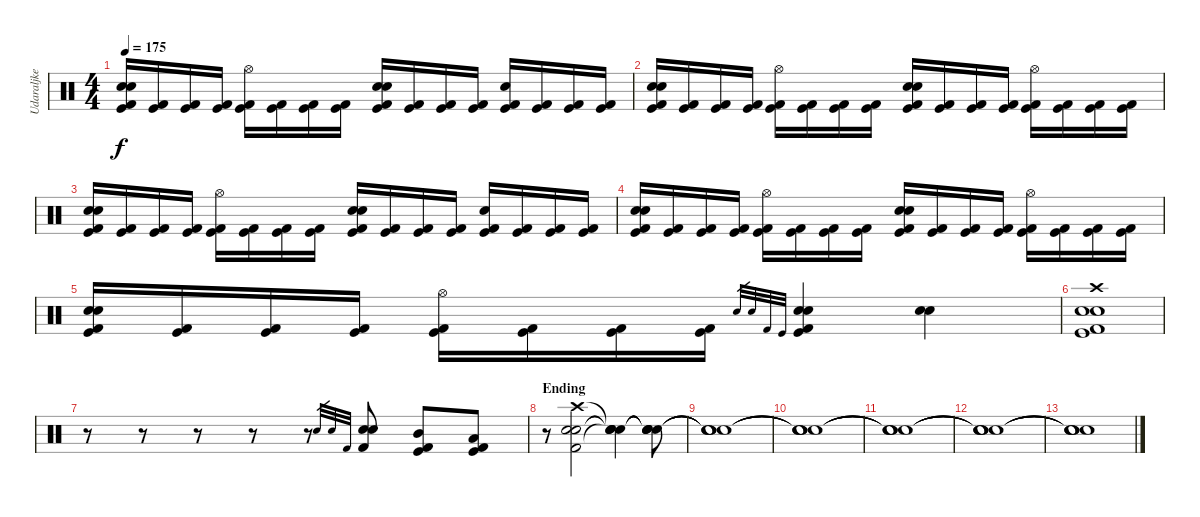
\track ("Udaraljke" "Udaraljke") {instrument percussion}
\staff {score}
\articulation defaults
\ts (4 4)
\tempo 175
\clef neutral
\ks c
("Electric Snare (hit)" "Snare (hit) 2" "Kick (hit) 2" "Kick (hit)").16{dy f} ("Kick (hit) 2" "Kick (hit)").16 ("Kick (hit) 2" "Kick (hit)").16 ("Kick (hit) 2" "Kick (hit)").16 ("Hi-Hat (open)" "Kick (hit) 2" "Kick (hit)").16 ("Kick (hit) 2" "Kick (hit)").16 ("Kick (hit) 2" "Kick (hit)").16 ("Kick (hit) 2" "Kick (hit)").16 ("Electric Snare (hit)" "Snare (hit) 2" "Kick (hit) 2" "Kick (hit)").16 ("Kick (hit) 2" "Kick (hit)").16 ("Kick (hit) 2" "Kick (hit)").16 ("Kick (hit) 2" "Kick (hit)").16 ("Electric Snare (hit)" "Kick (hit) 2" "Kick (hit)").16 ("Kick (hit) 2" "Kick (hit)").16 ("Kick (hit) 2" "Kick (hit)").16 ("Kick (hit) 2" "Kick (hit)").16 |
("Electric Snare (hit)" "Snare (hit) 2" "Kick (hit) 2" "Kick (hit)").16 ("Kick (hit) 2" "Kick (hit)").16 ("Kick (hit) 2" "Kick (hit)").16 ("Kick (hit) 2" "Kick (hit)").16 ("Hi-Hat (open)" "Kick (hit) 2" "Kick (hit)").16 ("Kick (hit) 2" "Kick (hit)").16 ("Kick (hit) 2" "Kick (hit)").16 ("Kick (hit) 2" "Kick (hit)").16 ("Electric Snare (hit)" "Snare (hit) 2" "Kick (hit) 2" "Kick (hit)").16 ("Kick (hit) 2" "Kick (hit)").16 ("Kick (hit) 2" "Kick (hit)").16 ("Kick (hit) 2" "Kick (hit)").16 ("Hi-Hat (open)" "Kick (hit) 2" "Kick (hit)").16 ("Kick (hit) 2" "Kick (hit)").16 ("Kick (hit) 2" "Kick (hit)").16 ("Kick (hit) 2" "Kick (hit)").16 |
("Electric Snare (hit)" "Snare (hit) 2" "Kick (hit) 2" "Kick (hit)").16 ("Kick (hit) 2" "Kick (hit)").16 ("Kick (hit) 2" "Kick (hit)").16 ("Kick (hit) 2" "Kick (hit)").16 ("Hi-Hat (open)" "Kick (hit) 2" "Kick (hit)").16 ("Kick (hit) 2" "Kick (hit)").16 ("Kick (hit) 2" "Kick (hit)").16 ("Kick (hit) 2" "Kick (hit)").16 ("Electric Snare (hit)" "Snare (hit) 2" "Kick (hit) 2" "Kick (hit)").16 ("Kick (hit) 2" "Kick (hit)").16 ("Kick (hit) 2" "Kick (hit)").16 ("Kick (hit) 2" "Kick (hit)").16 ("Electric Snare (hit)" "Kick (hit) 2" "Kick (hit)").16 ("Kick (hit) 2" "Kick (hit)").16 ("Kick (hit) 2" "Kick (hit)").16 ("Kick (hit) 2" "Kick (hit)").16 |
("Electric Snare (hit)" "Snare (hit) 2" "Kick (hit) 2" "Kick (hit)").16 ("Kick (hit) 2" "Kick (hit)").16 ("Kick (hit) 2" "Kick (hit)").16 ("Kick (hit) 2" "Kick (hit)").16 ("Hi-Hat (open)" "Kick (hit) 2" "Kick (hit)").16 ("Kick (hit) 2" "Kick (hit)").16 ("Kick (hit) 2" "Kick (hit)").16 ("Kick (hit) 2" "Kick (hit)").16 ("Electric Snare (hit)" "Snare (hit) 2" "Kick (hit) 2" "Kick (hit)").16 ("Kick (hit) 2" "Kick (hit)").16 ("Kick (hit) 2" "Kick (hit)").16 ("Kick (hit) 2" "Kick (hit)").16 ("Hi-Hat (open)" "Kick (hit) 2" "Kick (hit)").16 ("Kick (hit) 2" "Kick (hit)").16 ("Kick (hit) 2" "Kick (hit)").16 ("Kick (hit) 2" "Kick (hit)").16 |
("Electric Snare (hit)" "Snare (hit) 2" "Kick (hit) 2" "Kick (hit)").16 ("Kick (hit) 2" "Kick (hit)").16 ("Kick (hit) 2" "Kick (hit)").16 ("Kick (hit) 2" "Kick (hit)").16 ("Hi-Hat (open)" "Kick (hit) 2" "Kick (hit)").16 ("Kick (hit) 2" "Kick (hit)").16 ("Kick (hit) 2" "Kick (hit)").16 ("Kick (hit) 2" "Kick (hit)").16 "Electric Snare (hit)".32{gr} "Snare (hit) 2".32{gr} "Kick (hit) 2".32{gr} "Kick (hit)".32{gr} ("Electric Snare (hit)" "Snare (hit) 2" "Kick (hit) 2" "Kick (hit)").4 ("Electric Snare (hit)" "Snare (hit) 2").4 |
("Crash high (hit)" "Electric Snare (hit)" "Snare (hit) 2" "Kick (hit) 2" "Kick (hit)").1 |
r.8 r.8 r.8 r.8 r.8 "Electric Snare (hit)".32{gr} "Snare (hit) 2".32{gr} "Kick (hit) 2".32{gr} ("Electric Snare (hit)" "Snare (hit) 2" "Kick (hit) 2").8 ("Mid Tom (hit)" "Kick (hit) 2" "Kick (hit)").8 ("Low Tom (hit)" "Kick (hit) 2" "Kick (hit)").8 |
\section ("" "Ending")
r.8 ("Crash high (hit)" "Electric Snare (hit)" "Snare (hit) 2" "Kick (hit) 2").2 ("Snare (hit)"{t} "Snare (hit)"{t} "Snare (hit)"{t} "Snare (hit)"{t}).4 ("Snare (hit)"{t} "Snare (hit)"{t} "Snare (hit)"{t} "Snare (hit)"{t}).8 |
("Snare (hit)"{t} "Snare (hit)"{t} "Snare (hit)"{t} "Snare (hit)"{t}).1 |
("Snare (hit)"{t} "Snare (hit)"{t} "Snare (hit)"{t} "Snare (hit)"{t}).1 |
("Snare (hit)"{t} "Snare (hit)"{t} "Snare (hit)"{t} "Snare (hit)"{t}).1 |
("Snare (hit)"{t} "Snare (hit)"{t} "Snare (hit)"{t} "Snare (hit)"{t}).1 |
("Snare (hit)"{t} "Snare (hit)"{t} "Snare (hit)"{t} "Snare (hit)"{t}).1
